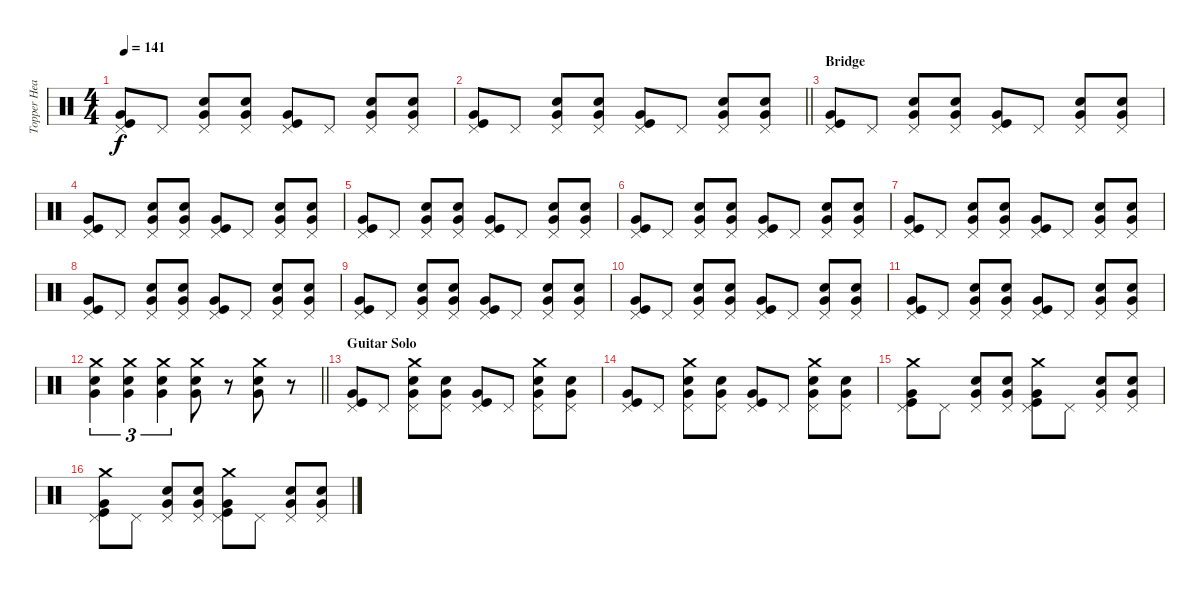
\track ("Topper Headon - Drums" "Topper Hea") {instrument percussion}
\staff {score}
\articulation defaults
\ts (4 4)
\tempo 141
\clef neutral
\ks c
("Pedal Hi-Hat (hit)" "Very Low Tom (hit)" "Kick (hit)").8{dy f} "Pedal Hi-Hat (hit)".8 ("Pedal Hi-Hat (hit)" "Very Low Tom (hit)" "Snare (hit) 2").8 ("Pedal Hi-Hat (hit)" "Very Low Tom (hit)" "Snare (hit) 2").8 ("Pedal Hi-Hat (hit)" "Very Low Tom (hit)" "Kick (hit)").8 "Pedal Hi-Hat (hit)".8 ("Pedal Hi-Hat (hit)" "Very Low Tom (hit)" "Snare (hit) 2").8 ("Pedal Hi-Hat (hit)" "Very Low Tom (hit)" "Snare (hit) 2").8 |
\barLineRight lightlight
("Pedal Hi-Hat (hit)" "Very Low Tom (hit)" "Kick (hit)").8 "Pedal Hi-Hat (hit)".8 ("Pedal Hi-Hat (hit)" "Very Low Tom (hit)" "Snare (hit) 2").8 ("Pedal Hi-Hat (hit)" "Very Low Tom (hit)" "Snare (hit) 2").8 ("Pedal Hi-Hat (hit)" "Very Low Tom (hit)" "Kick (hit)").8 "Pedal Hi-Hat (hit)".8 ("Pedal Hi-Hat (hit)" "Very Low Tom (hit)" "Snare (hit) 2").8 ("Pedal Hi-Hat (hit)" "Very Low Tom (hit)" "Snare (hit) 2").8 |
\section ("" "Bridge")
("Pedal Hi-Hat (hit)" "Very Low Tom (hit)" "Kick (hit)").8 "Pedal Hi-Hat (hit)".8 ("Pedal Hi-Hat (hit)" "Very Low Tom (hit)" "Snare (hit) 2").8 ("Pedal Hi-Hat (hit)" "Very Low Tom (hit)" "Snare (hit) 2").8 ("Pedal Hi-Hat (hit)" "Very Low Tom (hit)" "Kick (hit)").8 "Pedal Hi-Hat (hit)".8 ("Pedal Hi-Hat (hit)" "Very Low Tom (hit)" "Snare (hit) 2").8 ("Pedal Hi-Hat (hit)" "Very Low Tom (hit)" "Snare (hit) 2").8 |
("Pedal Hi-Hat (hit)" "Very Low Tom (hit)" "Kick (hit)").8 "Pedal Hi-Hat (hit)".8 ("Pedal Hi-Hat (hit)" "Very Low Tom (hit)" "Snare (hit) 2").8 ("Pedal Hi-Hat (hit)" "Very Low Tom (hit)" "Snare (hit) 2").8 ("Pedal Hi-Hat (hit)" "Very Low Tom (hit)" "Kick (hit)").8 "Pedal Hi-Hat (hit)".8 ("Pedal Hi-Hat (hit)" "Very Low Tom (hit)" "Snare (hit) 2").8 ("Pedal Hi-Hat (hit)" "Very Low Tom (hit)" "Snare (hit) 2").8 |
("Pedal Hi-Hat (hit)" "Very Low Tom (hit)" "Kick (hit)").8 "Pedal Hi-Hat (hit)".8 ("Pedal Hi-Hat (hit)" "Very Low Tom (hit)" "Snare (hit) 2").8 ("Pedal Hi-Hat (hit)" "Very Low Tom (hit)" "Snare (hit) 2").8 ("Pedal Hi-Hat (hit)" "Very Low Tom (hit)" "Kick (hit)").8 "Pedal Hi-Hat (hit)".8 ("Pedal Hi-Hat (hit)" "Very Low Tom (hit)" "Snare (hit) 2").8 ("Pedal Hi-Hat (hit)" "Very Low Tom (hit)" "Snare (hit) 2").8 |
("Pedal Hi-Hat (hit)" "Very Low Tom (hit)" "Kick (hit)").8 "Pedal Hi-Hat (hit)".8 ("Pedal Hi-Hat (hit)" "Very Low Tom (hit)" "Snare (hit) 2").8 ("Pedal Hi-Hat (hit)" "Very Low Tom (hit)" "Snare (hit) 2").8 ("Pedal Hi-Hat (hit)" "Very Low Tom (hit)" "Kick (hit)").8 "Pedal Hi-Hat (hit)".8 ("Pedal Hi-Hat (hit)" "Very Low Tom (hit)" "Snare (hit) 2").8 ("Pedal Hi-Hat (hit)" "Very Low Tom (hit)" "Snare (hit) 2").8 |
("Pedal Hi-Hat (hit)" "Very Low Tom (hit)" "Kick (hit)").8 "Pedal Hi-Hat (hit)".8 ("Pedal Hi-Hat (hit)" "Very Low Tom (hit)" "Snare (hit) 2").8 ("Pedal Hi-Hat (hit)" "Very Low Tom (hit)" "Snare (hit) 2").8 ("Pedal Hi-Hat (hit)" "Very Low Tom (hit)" "Kick (hit)").8 "Pedal Hi-Hat (hit)".8 ("Pedal Hi-Hat (hit)" "Very Low Tom (hit)" "Snare (hit) 2").8 ("Pedal Hi-Hat (hit)" "Very Low Tom (hit)" "Snare (hit) 2").8 |
("Pedal Hi-Hat (hit)" "Very Low Tom (hit)" "Kick (hit)").8 "Pedal Hi-Hat (hit)".8 ("Pedal Hi-Hat (hit)" "Very Low Tom (hit)" "Snare (hit) 2").8 ("Pedal Hi-Hat (hit)" "Very Low Tom (hit)" "Snare (hit) 2").8 ("Pedal Hi-Hat (hit)" "Very Low Tom (hit)" "Kick (hit)").8 "Pedal Hi-Hat (hit)".8 ("Pedal Hi-Hat (hit)" "Very Low Tom (hit)" "Snare (hit) 2").8 ("Pedal Hi-Hat (hit)" "Very Low Tom (hit)" "Snare (hit) 2").8 |
("Pedal Hi-Hat (hit)" "Very Low Tom (hit)" "Kick (hit)").8 "Pedal Hi-Hat (hit)".8 ("Pedal Hi-Hat (hit)" "Very Low Tom (hit)" "Snare (hit) 2").8 ("Pedal Hi-Hat (hit)" "Very Low Tom (hit)" "Snare (hit) 2").8 ("Pedal Hi-Hat (hit)" "Very Low Tom (hit)" "Kick (hit)").8 "Pedal Hi-Hat (hit)".8 ("Pedal Hi-Hat (hit)" "Very Low Tom (hit)" "Snare (hit) 2").8 ("Pedal Hi-Hat (hit)" "Very Low Tom (hit)" "Snare (hit) 2").8 |
("Pedal Hi-Hat (hit)" "Very Low Tom (hit)" "Kick (hit)").8 "Pedal Hi-Hat (hit)".8 ("Pedal Hi-Hat (hit)" "Very Low Tom (hit)" "Snare (hit) 2").8 ("Pedal Hi-Hat (hit)" "Very Low Tom (hit)" "Snare (hit) 2").8 ("Pedal Hi-Hat (hit)" "Very Low Tom (hit)" "Kick (hit)").8 "Pedal Hi-Hat (hit)".8 ("Pedal Hi-Hat (hit)" "Very Low Tom (hit)" "Snare (hit) 2").8 ("Pedal Hi-Hat (hit)" "Very Low Tom (hit)" "Snare (hit) 2").8 |
("Pedal Hi-Hat (hit)" "Very Low Tom (hit)" "Kick (hit)").8 "Pedal Hi-Hat (hit)".8 ("Pedal Hi-Hat (hit)" "Very Low Tom (hit)" "Snare (hit) 2").8 ("Pedal Hi-Hat (hit)" "Very Low Tom (hit)" "Snare (hit) 2").8 ("Pedal Hi-Hat (hit)" "Very Low Tom (hit)" "Kick (hit)").8 "Pedal Hi-Hat (hit)".8 ("Pedal Hi-Hat (hit)" "Very Low Tom (hit)" "Snare (hit) 2").8 ("Pedal Hi-Hat (hit)" "Very Low Tom (hit)" "Snare (hit) 2").8 |
\barLineRight lightlight
("Crash medium (hit)" "Snare (hit) 2" "Very Low Tom (hit)").4{tu (3 2)} ("Crash medium (hit)" "Snare (hit) 2" "Very Low Tom (hit)").4{tu (3 2)} ("Crash medium (hit)" "Snare (hit) 2" "Very Low Tom (hit)").4{tu (3 2)} ("Crash medium (hit)" "Snare (hit) 2" "Very Low Tom (hit)").8 r.8 ("Crash medium (hit)" "Snare (hit) 2" "Very Low Tom (hit)").8 r.8 |
\section ("" "Guitar Solo")
("Pedal Hi-Hat (hit)" "Very Low Tom (hit)" "Kick (hit)").8 "Pedal Hi-Hat (hit)".8 ("Pedal Hi-Hat (hit)" "Crash medium (hit)" "Very Low Tom (hit)" "Snare (hit) 2").8 ("Pedal Hi-Hat (hit)" "Very Low Tom (hit)" "Snare (hit) 2").8 ("Pedal Hi-Hat (hit)" "Very Low Tom (hit)" "Kick (hit)").8 "Pedal Hi-Hat (hit)".8 ("Pedal Hi-Hat (hit)" "Crash medium (hit)" "Very Low Tom (hit)" "Snare (hit) 2").8 ("Pedal Hi-Hat (hit)" "Very Low Tom (hit)" "Snare (hit) 2").8 |
("Pedal Hi-Hat (hit)" "Very Low Tom (hit)" "Kick (hit)").8 "Pedal Hi-Hat (hit)".8 ("Pedal Hi-Hat (hit)" "Crash medium (hit)" "Very Low Tom (hit)" "Snare (hit) 2").8 ("Pedal Hi-Hat (hit)" "Very Low Tom (hit)" "Snare (hit) 2").8 ("Pedal Hi-Hat (hit)" "Very Low Tom (hit)" "Kick (hit)").8 "Pedal Hi-Hat (hit)".8 ("Pedal Hi-Hat (hit)" "Crash medium (hit)" "Very Low Tom (hit)" "Snare (hit) 2").8 ("Pedal Hi-Hat (hit)" "Very Low Tom (hit)" "Snare (hit) 2").8 |
("Pedal Hi-Hat (hit)" "Crash medium (hit)" "Very Low Tom (hit)" "Kick (hit)").8 "Pedal Hi-Hat (hit)".8 ("Pedal Hi-Hat (hit)" "Very Low Tom (hit)" "Snare (hit) 2").8 ("Pedal Hi-Hat (hit)" "Very Low Tom (hit)" "Snare (hit) 2").8 ("Pedal Hi-Hat (hit)" "Crash medium (hit)" "Very Low Tom (hit)" "Kick (hit)").8 "Pedal Hi-Hat (hit)".8 ("Pedal Hi-Hat (hit)" "Very Low Tom (hit)" "Snare (hit) 2").8 ("Pedal Hi-Hat (hit)" "Very Low Tom (hit)" "Snare (hit) 2").8 |
("Pedal Hi-Hat (hit)" "Crash medium (hit)" "Very Low Tom (hit)" "Kick (hit)").8 "Pedal Hi-Hat (hit)".8 ("Pedal Hi-Hat (hit)" "Very Low Tom (hit)" "Snare (hit) 2").8 ("Pedal Hi-Hat (hit)" "Very Low Tom (hit)" "Snare (hit) 2").8 ("Pedal Hi-Hat (hit)" "Crash medium (hit)" "Very Low Tom (hit)" "Kick (hit)").8 "Pedal Hi-Hat (hit)".8 ("Pedal Hi-Hat (hit)" "Very Low Tom (hit)" "Snare (hit) 2").8 ("Pedal Hi-Hat (hit)" "Very Low Tom (hit)" "Snare (hit) 2").8
